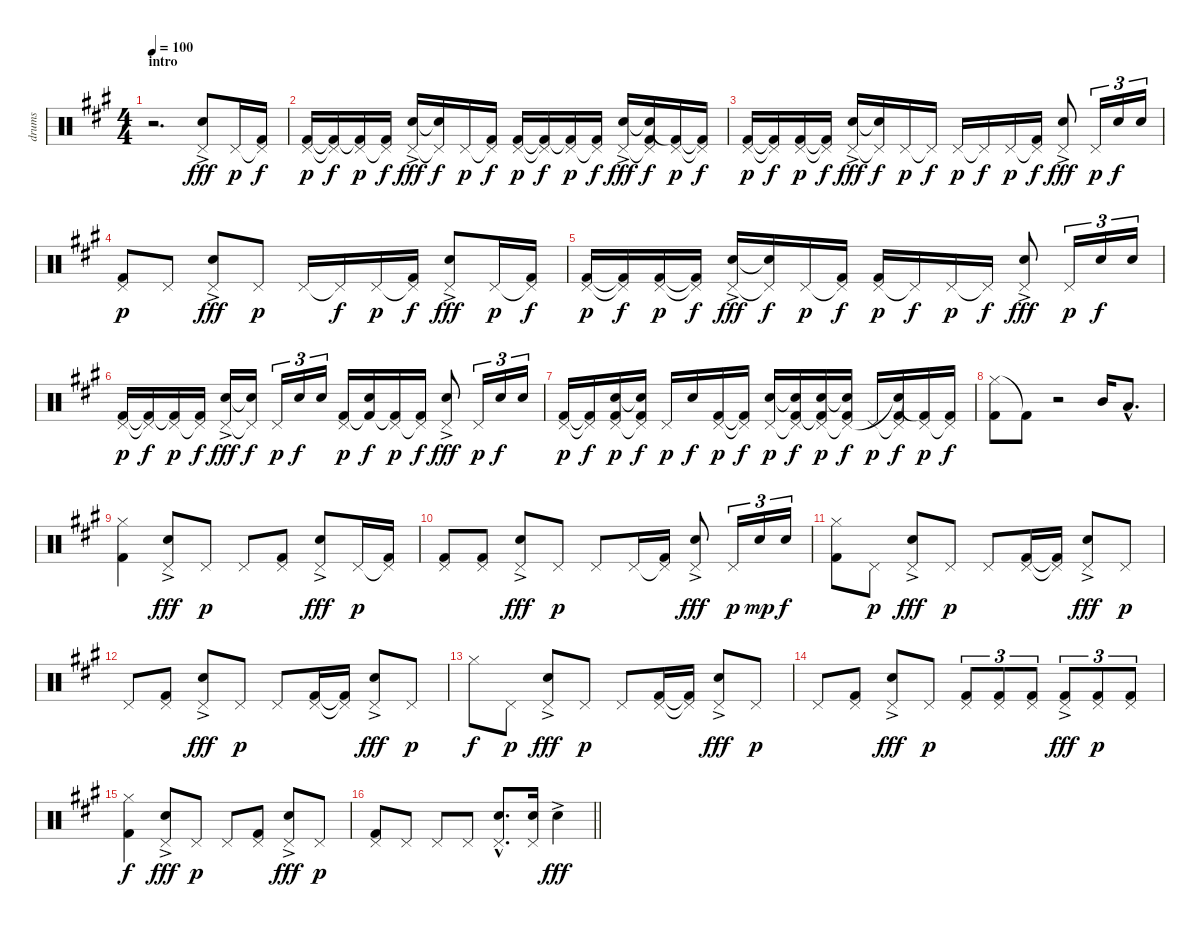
\track ("drums" "drums") {instrument percussion}
\staff {score}
\articulation defaults
\ts (4 4)
\section ("" "intro")
\tempo 100
\clef neutral
\ks a
r.2{d dy fff} ("Pedal Hi-Hat (hit)" "Snare (hit) 2"{ac}).8{volume 3} "Pedal Hi-Hat (hit)".16{dy p} ("Pedal Hi-Hat (hit)"{t} "Kick (hit) 2").16{dy f} |
("Pedal Hi-Hat (hit)" "Kick (hit) 2").16{dy p volume 5} ("Pedal Hi-Hat (hit)"{t} "Kick (hit) 2"{t}).16{dy f} ("Pedal Hi-Hat (hit)" "Kick (hit) 2"{t}).16{dy p} ("Pedal Hi-Hat (hit)"{t} "Kick (hit) 2").16{dy f} ("Pedal Hi-Hat (hit)" "Snare (hit) 2"{ac}).16{dy fff} ("Pedal Hi-Hat (hit)"{t} "Snare (hit) 2"{t}).16{dy f} "Pedal Hi-Hat (hit)".16{dy p} ("Pedal Hi-Hat (hit)"{t} "Kick (hit) 2").16{dy f} ("Pedal Hi-Hat (hit)" "Kick (hit) 2").16{dy p volume 8} ("Pedal Hi-Hat (hit)"{t} "Kick (hit) 2"{t}).16{dy f} ("Pedal Hi-Hat (hit)" "Kick (hit) 2"{t}).16{dy p} ("Pedal Hi-Hat (hit)"{t} "Kick (hit) 2").16{dy f} ("Pedal Hi-Hat (hit)" "Snare (hit) 2"{ac}).16{dy fff} ("Pedal Hi-Hat (hit)"{t} "Snare (hit) 2"{t} "Kick (hit) 2").16{dy f} ("Pedal Hi-Hat (hit)" "Kick (hit) 2"{t}).16{dy p} ("Pedal Hi-Hat (hit)"{t} "Kick (hit) 2"{t}).16{dy f} |
("Pedal Hi-Hat (hit)" "Kick (hit) 2").16{dy p volume 10} ("Pedal Hi-Hat (hit)"{t} "Kick (hit) 2"{t}).16{dy f} ("Pedal Hi-Hat (hit)" "Kick (hit) 2").16{dy p} ("Pedal Hi-Hat (hit)"{t} "Kick (hit) 2"{t}).16{dy f} ("Pedal Hi-Hat (hit)" "Snare (hit) 2"{ac}).16{dy fff} ("Pedal Hi-Hat (hit)"{t} "Snare (hit) 2"{t}).16{dy f} "Pedal Hi-Hat (hit)".16{dy p volume 14} "Pedal Hi-Hat (hit)"{t}.16{dy f} "Pedal Hi-Hat (hit)".16{dy p} "Pedal Hi-Hat (hit)"{t}.16{dy f} "Pedal Hi-Hat (hit)".16{dy p} ("Pedal Hi-Hat (hit)"{t} "Kick (hit) 2").16{dy f} ("Pedal Hi-Hat (hit)" "Snare (hit) 2"{ac}).8{dy fff} "Pedal Hi-Hat (hit)".16{tu (3 2) dy p} "Snare (hit) 2".16{tu (3 2) dy f} "Snare (hit) 2".16{tu (3 2)} |
("Pedal Hi-Hat (hit)" "Kick (hit) 2").8{dy p} "Pedal Hi-Hat (hit)".8 ("Pedal Hi-Hat (hit)" "Snare (hit) 2"{ac}).8{dy fff} "Pedal Hi-Hat (hit)".8{dy p} "Pedal Hi-Hat (hit)".16 "Pedal Hi-Hat (hit)"{t}.16{dy f} "Pedal Hi-Hat (hit)".16{dy p} ("Pedal Hi-Hat (hit)"{t} "Kick (hit) 2").16{dy f} ("Pedal Hi-Hat (hit)" "Snare (hit) 2"{ac}).8{dy fff} "Pedal Hi-Hat (hit)".16{dy p} ("Pedal Hi-Hat (hit)"{t} "Kick (hit) 2").16{dy f} |
("Pedal Hi-Hat (hit)" "Kick (hit) 2").16{dy p} ("Pedal Hi-Hat (hit)"{t} "Kick (hit) 2"{t}).16{dy f} ("Pedal Hi-Hat (hit)" "Kick (hit) 2").16{dy p} ("Pedal Hi-Hat (hit)"{t} "Kick (hit) 2"{t}).16{dy f} ("Pedal Hi-Hat (hit)" "Snare (hit) 2"{ac}).16{dy fff} ("Pedal Hi-Hat (hit)"{t} "Snare (hit) 2"{t}).16{dy f} "Pedal Hi-Hat (hit)".16{dy p} ("Pedal Hi-Hat (hit)"{t} "Kick (hit) 2").16{dy f} ("Pedal Hi-Hat (hit)" "Kick (hit) 2").16{dy p} "Pedal Hi-Hat (hit)"{t}.16{dy f} "Pedal Hi-Hat (hit)".16{dy p} "Pedal Hi-Hat (hit)"{t}.16{dy f} ("Pedal Hi-Hat (hit)" "Snare (hit) 2"{ac}).8{dy fff} "Pedal Hi-Hat (hit)".16{tu (3 2) dy p} "Snare (hit) 2".16{tu (3 2) dy f} "Snare (hit) 2".16{tu (3 2)} |
("Pedal Hi-Hat (hit)" "Kick (hit) 2").16{dy p} ("Pedal Hi-Hat (hit)"{t} "Kick (hit) 2"{t}).16{dy f} ("Pedal Hi-Hat (hit)" "Kick (hit) 2"{t}).16{dy p} ("Pedal Hi-Hat (hit)"{t} "Kick (hit) 2").16{dy f} ("Pedal Hi-Hat (hit)" "Snare (hit) 2"{ac}).16{dy fff} ("Pedal Hi-Hat (hit)"{t} "Snare (hit) 2"{t}).16{dy f} "Pedal Hi-Hat (hit)".16{tu (3 2) dy p} "Snare (hit) 2".16{tu (3 2) dy f} "Snare (hit) 2".16{tu (3 2)} ("Pedal Hi-Hat (hit)" "Kick (hit) 2").16{dy p} ("Snare (hit) 2" "Kick (hit) 2"{t}).16{dy f} ("Pedal Hi-Hat (hit)" "Kick (hit) 2"{t}).16{dy p} ("Pedal Hi-Hat (hit)"{t} "Kick (hit) 2").16{dy f} ("Pedal Hi-Hat (hit)" "Snare (hit) 2"{ac}).8{dy fff} "Pedal Hi-Hat (hit)".16{tu (3 2) dy p} "Snare (hit) 2".16{tu (3 2) dy f} "Snare (hit) 2".16{tu (3 2)} |
("Pedal Hi-Hat (hit)" "Kick (hit) 2").16{dy p} ("Pedal Hi-Hat (hit)"{t} "Kick (hit) 2"{t}).16{dy f} ("Snare (hit) 2" "Pedal Hi-Hat (hit)" "Kick (hit) 2").16{dy p} ("Snare (hit) 2"{t} "Pedal Hi-Hat (hit)"{t} "Kick (hit) 2").16{dy f} "Pedal Hi-Hat (hit)".16{dy p} "Snare (hit) 2".16{dy f} ("Pedal Hi-Hat (hit)" "Kick (hit) 2").16{dy p} ("Pedal Hi-Hat (hit)"{t} "Kick (hit) 2"{t}).16{dy f} ("Snare (hit) 2" "Pedal Hi-Hat (hit)").16{dy p} ("Snare (hit) 2"{t} "Pedal Hi-Hat (hit)"{t} "Kick (hit) 2").16{dy f} ("Snare (hit) 2" "Pedal Hi-Hat (hit)" "Kick (hit) 2"{t}).16{dy p} ("Snare (hit) 2"{t} "Pedal Hi-Hat (hit)"{t} "Kick (hit) 2").16{dy f} "Pedal Hi-Hat (hit)".16{dy p} ("Pedal Hi-Hat (hit)"{t} "Snare (hit) 2"{t} "Kick (hit) 2").16{dy f} ("Pedal Hi-Hat (hit)" "Kick (hit) 2"{t}).16{dy p} ("Pedal Hi-Hat (hit)"{t} "Kick (hit) 2").16{dy f} |
("Hi-Hat (closed)" "Kick (hit) 2").8 "Kick (hit) 2"{t}.8 r.2 "Mid Tom (hit)".16 "Low Tom (hit)"{hac}.8{d} |
("Hi-Hat (closed)" "Kick (hit) 2").4 ("Pedal Hi-Hat (hit)" "Snare (hit) 2"{ac}).8{dy fff} "Pedal Hi-Hat (hit)".8{dy p} "Pedal Hi-Hat (hit)".8 ("Pedal Hi-Hat (hit)" "Kick (hit) 2").8 ("Pedal Hi-Hat (hit)" "Snare (hit) 2"{ac}).8{dy fff} "Pedal Hi-Hat (hit)".16{dy p} ("Pedal Hi-Hat (hit)"{t} "Kick (hit) 2").16 |
("Pedal Hi-Hat (hit)" "Kick (hit) 2").8 ("Pedal Hi-Hat (hit)" "Kick (hit) 2").8 ("Pedal Hi-Hat (hit)" "Snare (hit) 2"{ac}).8{dy fff} "Pedal Hi-Hat (hit)".8{dy p} "Pedal Hi-Hat (hit)".8 "Pedal Hi-Hat (hit)".16 ("Pedal Hi-Hat (hit)"{t} "Kick (hit) 2").16 ("Pedal Hi-Hat (hit)" "Snare (hit) 2"{ac}).8{dy fff} "Pedal Hi-Hat (hit)".16{tu (3 2) dy p} "Snare (hit) 2".16{tu (3 2) dy mp} "Snare (hit) 2".16{tu (3 2) dy f} |
("Hi-Hat (closed)" "Kick (hit) 2").8 "Pedal Hi-Hat (hit)".8{dy p} ("Pedal Hi-Hat (hit)" "Snare (hit) 2"{ac}).8{dy fff} "Pedal Hi-Hat (hit)".8{dy p} "Pedal Hi-Hat (hit)".8 ("Pedal Hi-Hat (hit)" "Kick (hit) 2").16 ("Pedal Hi-Hat (hit)"{t} "Kick (hit) 2"{t}).16 ("Pedal Hi-Hat (hit)" "Snare (hit) 2"{ac}).8{dy fff} "Pedal Hi-Hat (hit)".8{dy p} |
"Pedal Hi-Hat (hit)".8 ("Pedal Hi-Hat (hit)" "Kick (hit) 2").8 ("Pedal Hi-Hat (hit)" "Snare (hit) 2"{ac}).8{dy fff} "Pedal Hi-Hat (hit)".8{dy p} "Pedal Hi-Hat (hit)".8 ("Pedal Hi-Hat (hit)" "Kick (hit) 2").16 ("Pedal Hi-Hat (hit)"{t} "Kick (hit) 2"{t}).16 ("Pedal Hi-Hat (hit)" "Snare (hit) 2"{ac}).8{dy fff} "Pedal Hi-Hat (hit)".8{dy p} |
"Hi-Hat (closed)".8{dy f} "Pedal Hi-Hat (hit)".8{dy p} ("Pedal Hi-Hat (hit)" "Snare (hit) 2"{ac}).8{dy fff} "Pedal Hi-Hat (hit)".8{dy p} "Pedal Hi-Hat (hit)".8 ("Pedal Hi-Hat (hit)" "Kick (hit) 2").16 ("Pedal Hi-Hat (hit)"{t} "Kick (hit) 2"{t}).16 ("Pedal Hi-Hat (hit)" "Snare (hit) 2"{ac}).8{dy fff} "Pedal Hi-Hat (hit)".8{dy p} |
"Pedal Hi-Hat (hit)".8 ("Pedal Hi-Hat (hit)" "Kick (hit) 2").8 ("Pedal Hi-Hat (hit)" "Snare (hit) 2"{ac}).8{dy fff} "Pedal Hi-Hat (hit)".8{dy p} ("Pedal Hi-Hat (hit)" "Kick (hit) 2").8{tu (3 2)} ("Pedal Hi-Hat (hit)" "Kick (hit) 2").8{tu (3 2)} ("Pedal Hi-Hat (hit)" "Kick (hit) 2").8{tu (3 2)} ("Pedal Hi-Hat (hit)" "Kick (hit) 2"{ac}).8{tu (3 2) dy fff} ("Pedal Hi-Hat (hit)" "Kick (hit) 2").8{tu (3 2) dy p} ("Pedal Hi-Hat (hit)" "Kick (hit) 2").8{tu (3 2)} |
("Hi-Hat (closed)" "Kick (hit) 2").4{dy f} ("Pedal Hi-Hat (hit)" "Snare (hit) 2"{ac}).8{dy fff} "Pedal Hi-Hat (hit)".8{dy p} "Pedal Hi-Hat (hit)".8 ("Pedal Hi-Hat (hit)" "Kick (hit) 2").8 ("Pedal Hi-Hat (hit)" "Snare (hit) 2"{ac}).8{dy fff} "Pedal Hi-Hat (hit)".8{dy p} |
\barLineRight lightlight
("Pedal Hi-Hat (hit)" "Kick (hit) 2").8 "Pedal Hi-Hat (hit)".8 "Pedal Hi-Hat (hit)".8 "Pedal Hi-Hat (hit)".8 ("Pedal Hi-Hat (hit)"{hac} "Snare (hit) 2"{hac}).8{d} ("Pedal Hi-Hat (hit)" "Snare (hit) 2").16 "Snare (hit) 2"{ac}.4{dy fff}
